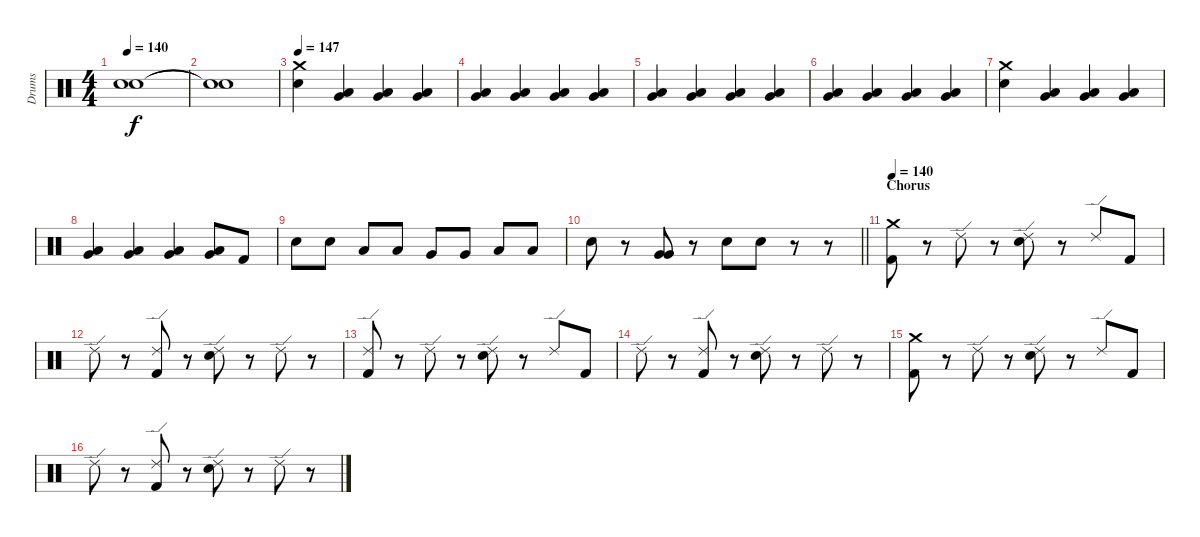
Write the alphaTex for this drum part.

\track ("Drums" "Drums") {instrument percussion}
\staff {score}
\articulation defaults
\ts (4 4)
\tempo 140
\clef neutral
\ks c
("Snare (hit)"{t} "Snare (hit)"{t}).1{dy f} |
("Snare (hit)"{t} "Snare (hit)"{t}).1 |
\tempo 147
("Crash medium (hit)" "Electric Snare (hit)").4 ("Low Tom (hit)" "Very Low Tom (hit)").4 ("Low Tom (hit)" "Very Low Tom (hit)").4 ("Low Tom (hit)" "Very Low Tom (hit)").4 |
("Low Tom (hit)" "Very Low Tom (hit)").4 ("Low Tom (hit)" "Very Low Tom (hit)").4 ("Low Tom (hit)" "Very Low Tom (hit)").4 ("Low Tom (hit)" "Very Low Tom (hit)").4 |
("Low Tom (hit)" "Very Low Tom (hit)").4 ("Low Tom (hit)" "Very Low Tom (hit)").4 ("Low Tom (hit)" "Very Low Tom (hit)").4 ("Low Tom (hit)" "Very Low Tom (hit)").4 |
("Low Tom (hit)" "Very Low Tom (hit)").4 ("Low Tom (hit)" "Very Low Tom (hit)").4 ("Low Tom (hit)" "Very Low Tom (hit)").4 ("Low Tom (hit)" "Very Low Tom (hit)").4 |
("Crash medium (hit)" "Electric Snare (hit)").4 ("Low Tom (hit)" "Very Low Tom (hit)").4 ("Low Tom (hit)" "Very Low Tom (hit)").4 ("Low Tom (hit)" "Very Low Tom (hit)").4 |
("Low Tom (hit)" "Very Low Tom (hit)").4 ("Low Tom (hit)" "Very Low Tom (hit)").4 ("Low Tom (hit)" "Very Low Tom (hit)").4 ("Low Tom (hit)" "Very Low Tom (hit)").8 "Kick (hit) 2".8 |
"Electric Snare (hit)".8 "Electric Snare (hit)".8 "Low Tom (hit)".8 "Low Tom (hit)".8 "Very Low Tom (hit)".8 "Very Low Tom (hit)".8 "Low Floor Tom (hit)".8 "Low Floor Tom (hit)".8 |
\barLineRight lightlight "Electric Snare (hit)".8
r.8 ("Very Low Tom (hit)" "Very Low Tom (hit)").8 r.8 "Electric Snare (hit)".8 "Electric Snare (hit)".8 r.8 r.8 |
\section ("" "Chorus")
\tempo 140
("Crash medium (hit)" "Kick (hit) 2").8 r.8 "Ride (edge) 2".8 r.8 ("Ride (edge) 2" "Electric Snare (hit)").8 r.8 "Ride (edge) 2".8 "Kick (hit) 2".8 |
"Ride (edge) 2".8 r.8 ("Ride (edge) 2" "Kick (hit) 2").8 r.8 ("Ride (edge) 2" "Electric Snare (hit)").8 r.8 "Ride (edge) 2".8 r.8 |
("Ride (edge) 2" "Kick (hit) 2").8 r.8 "Ride (edge) 2".8 r.8 ("Ride (edge) 2" "Electric Snare (hit)").8 r.8 "Ride (edge) 2".8 "Kick (hit) 2".8 |
"Ride (edge) 2".8 r.8 ("Ride (edge) 2" "Kick (hit) 2").8 r.8 ("Ride (edge) 2" "Electric Snare (hit)").8 r.8 "Ride (edge) 2".8 r.8 |
("Crash medium (hit)" "Kick (hit) 2").8 r.8 "Ride (edge) 2".8 r.8 ("Ride (edge) 2" "Electric Snare (hit)").8 r.8 "Ride (edge) 2".8 "Kick (hit) 2".8 |
"Ride (edge) 2".8 r.8 ("Ride (edge) 2" "Kick (hit) 2").8 r.8 ("Ride (edge) 2" "Electric Snare (hit)").8 r.8 "Ride (edge) 2".8 r.8
